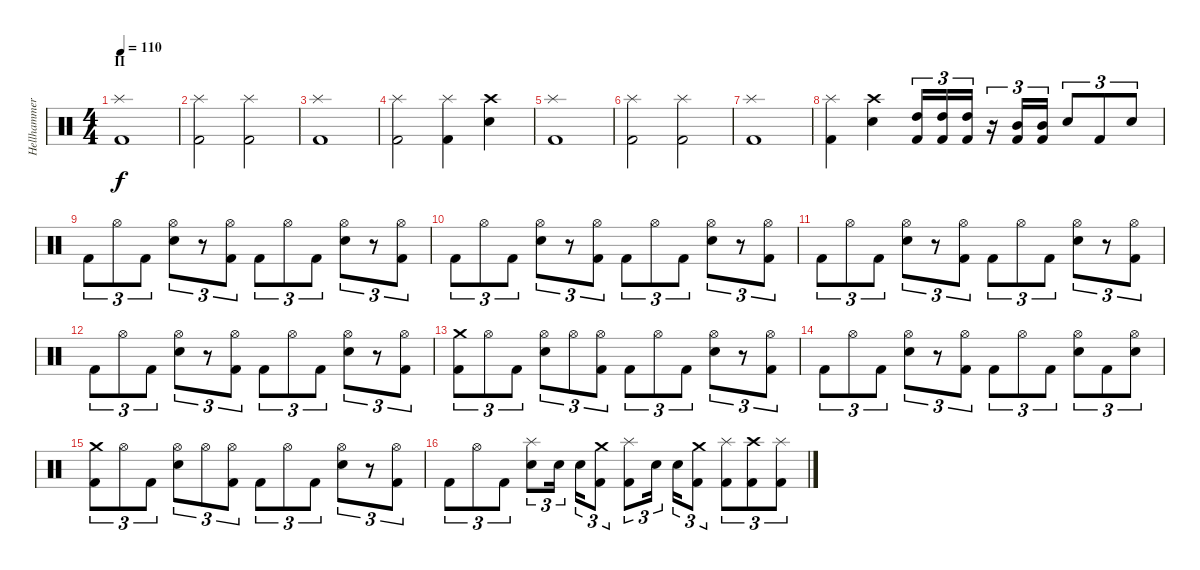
\track ("Hellhammer" "Hellhammer") {instrument percussion}
\staff {score}
\articulation defaults
\ts (4 4)
\section ("" "II")
\tempo 110
\clef neutral
\ks c
("Kick (hit) 2" "Splash (hit)").1{dy f} |
("Kick (hit) 2" "Splash (hit)").2 ("Kick (hit) 2" "Splash (hit)").2 |
("Kick (hit) 2" "Splash (hit)").1 |
("Kick (hit) 2" "Splash (hit)").2 ("Kick (hit) 2" "Splash (hit)").4 ("Electric Snare (hit)" "Crash high (hit)").4 |
("Kick (hit) 2" "Splash (hit)").1 |
("Kick (hit) 2" "Splash (hit)").2 ("Kick (hit) 2" "Splash (hit)").2 |
("Kick (hit) 2" "Splash (hit)").1 |
("Kick (hit) 2" "Splash (hit)").4 ("Electric Snare (hit)" "Crash high (hit)").4 ("Kick (hit) 2" "High Tom (hit)").16{tu (3 2)} ("Kick (hit) 2" "High Tom (hit)").16{tu (3 2)} ("Kick (hit) 2" "High Tom (hit)").16{tu (3 2)} r.16{tu (3 2)} ("Kick (hit) 2" "Mid Tom (hit)").16{tu (3 2)} ("Kick (hit) 2" "Mid Tom (hit)").16{tu (3 2)} "Electric Snare (hit)".8{tu (3 2)} "Kick (hit) 2".8{tu (3 2)} "Electric Snare (hit)".8{tu (3 2)} |
"Kick (hit) 2".8{tu (3 2)} "Hi-Hat (open)".8{tu (3 2)} "Kick (hit) 2".8{tu (3 2)} ("Electric Snare (hit)" "Hi-Hat (open)").8{tu (3 2)} r.8{tu (3 2)} ("Kick (hit) 2" "Hi-Hat (open)").8{tu (3 2)} "Kick (hit) 2".8{tu (3 2)} "Hi-Hat (open)".8{tu (3 2)} "Kick (hit) 2".8{tu (3 2)} ("Electric Snare (hit)" "Hi-Hat (open)").8{tu (3 2)} r.8{tu (3 2)} ("Kick (hit) 2" "Hi-Hat (open)").8{tu (3 2)} |
"Kick (hit) 2".8{tu (3 2)} "Hi-Hat (open)".8{tu (3 2)} "Kick (hit) 2".8{tu (3 2)} ("Electric Snare (hit)" "Hi-Hat (open)").8{tu (3 2)} r.8{tu (3 2)} ("Kick (hit) 2" "Hi-Hat (open)").8{tu (3 2)} "Kick (hit) 2".8{tu (3 2)} "Hi-Hat (open)".8{tu (3 2)} "Kick (hit) 2".8{tu (3 2)} ("Electric Snare (hit)" "Hi-Hat (open)").8{tu (3 2)} r.8{tu (3 2)} ("Kick (hit) 2" "Hi-Hat (open)").8{tu (3 2)} |
"Kick (hit) 2".8{tu (3 2)} "Hi-Hat (open)".8{tu (3 2)} "Kick (hit) 2".8{tu (3 2)} ("Electric Snare (hit)" "Hi-Hat (open)").8{tu (3 2)} r.8{tu (3 2)} ("Kick (hit) 2" "Hi-Hat (open)").8{tu (3 2)} "Kick (hit) 2".8{tu (3 2)} "Hi-Hat (open)".8{tu (3 2)} "Kick (hit) 2".8{tu (3 2)} ("Electric Snare (hit)" "Hi-Hat (open)").8{tu (3 2)} r.8{tu (3 2)} ("Kick (hit) 2" "Hi-Hat (open)").8{tu (3 2)} |
"Kick (hit) 2".8{tu (3 2)} "Hi-Hat (open)".8{tu (3 2)} "Kick (hit) 2".8{tu (3 2)} ("Electric Snare (hit)" "Hi-Hat (open)").8{tu (3 2)} r.8{tu (3 2)} ("Kick (hit) 2" "Hi-Hat (open)").8{tu (3 2)} "Kick (hit) 2".8{tu (3 2)} "Hi-Hat (open)".8{tu (3 2)} "Kick (hit) 2".8{tu (3 2)} ("Electric Snare (hit)" "Hi-Hat (open)").8{tu (3 2)} r.8{tu (3 2)} ("Kick (hit) 2" "Hi-Hat (open)").8{tu (3 2)} |
("Kick (hit) 2" "Crash medium (hit)").8{tu (3 2)} "Hi-Hat (open)".8{tu (3 2)} "Kick (hit) 2".8{tu (3 2)} ("Electric Snare (hit)" "Hi-Hat (open)").8{tu (3 2)} "Hi-Hat (open)".8{tu (3 2)} ("Kick (hit) 2" "Hi-Hat (open)").8{tu (3 2)} "Kick (hit) 2".8{tu (3 2)} "Hi-Hat (open)".8{tu (3 2)} "Kick (hit) 2".8{tu (3 2)} ("Electric Snare (hit)" "Hi-Hat (open)").8{tu (3 2)} r.8{tu (3 2)} ("Kick (hit) 2" "Hi-Hat (open)").8{tu (3 2)} |
"Kick (hit) 2".8{tu (3 2)} "Hi-Hat (open)".8{tu (3 2)} "Kick (hit) 2".8{tu (3 2)} ("Electric Snare (hit)" "Hi-Hat (open)").8{tu (3 2)} r.8{tu (3 2)} ("Kick (hit) 2" "Hi-Hat (open)").8{tu (3 2)} "Kick (hit) 2".8{tu (3 2)} "Hi-Hat (open)".8{tu (3 2)} "Kick (hit) 2".8{tu (3 2)} ("Electric Snare (hit)" "Hi-Hat (open)").8{tu (3 2)} "Kick (hit) 2".8{tu (3 2)} ("Electric Snare (hit)" "Hi-Hat (open)").8{tu (3 2)} |
("Kick (hit) 2" "Crash medium (hit)").8{tu (3 2)} "Hi-Hat (open)".8{tu (3 2)} "Kick (hit) 2".8{tu (3 2)} ("Electric Snare (hit)" "Hi-Hat (open)").8{tu (3 2)} "Hi-Hat (open)".8{tu (3 2)} ("Kick (hit) 2" "Hi-Hat (open)").8{tu (3 2)} "Kick (hit) 2".8{tu (3 2)} "Hi-Hat (open)".8{tu (3 2)} "Kick (hit) 2".8{tu (3 2)} ("Electric Snare (hit)" "Hi-Hat (open)").8{tu (3 2)} r.8{tu (3 2)} ("Kick (hit) 2" "Hi-Hat (open)").8{tu (3 2)} |
"Kick (hit) 2".8{tu (3 2)} "Hi-Hat (open)".8{tu (3 2)} "Kick (hit) 2".8{tu (3 2)} ("Electric Snare (hit)" "Splash (hit)").8{tu (3 2)} "Electric Snare (hit)".16{tu (3 2)} "Electric Snare (hit)".16{tu (3 2)} ("Kick (hit) 2" "Crash medium (hit)").8{tu (3 2)} ("Kick (hit) 2" "Splash (hit)").8{tu (3 2)} "Electric Snare (hit)".16{tu (3 2)} "Electric Snare (hit)".16{tu (3 2)} ("Kick (hit) 2" "Crash medium (hit)").8{tu (3 2)} ("Kick (hit) 2" "Splash (hit)").8{tu (3 2)} ("Kick (hit) 2" "Crash high (hit)").8{tu (3 2)} ("Kick (hit) 2" "Splash (hit)").8{tu (3 2)}
